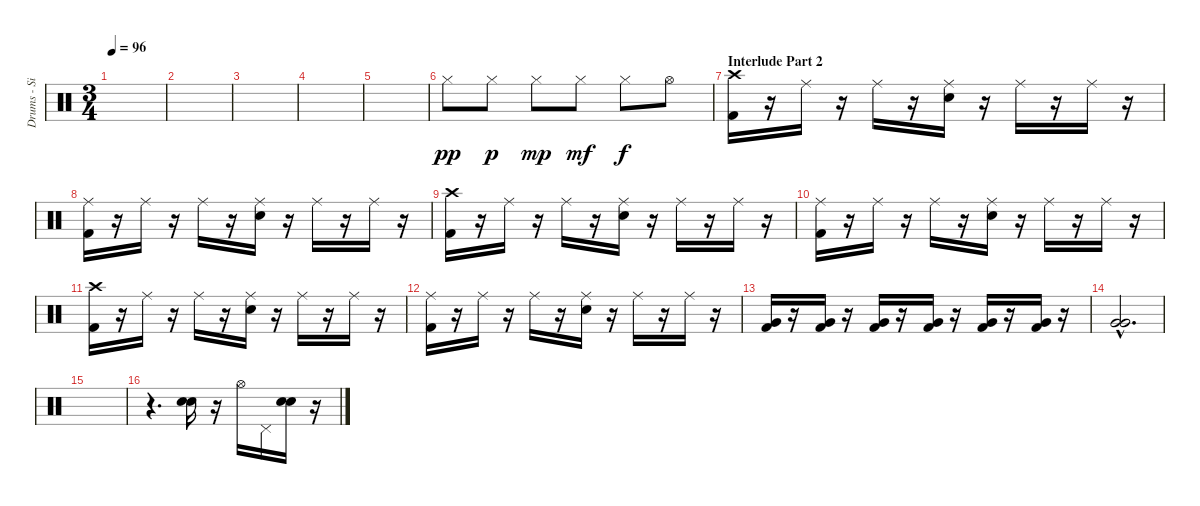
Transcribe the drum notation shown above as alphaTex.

\track ("Drums - Si" "Drums - Si") {instrument percussion}
\staff {score}
\articulation defaults
\ts (3 4)
\tempo 96
\clef neutral
\ks c
|
|
|
|
|
"Hi-Hat (closed)".8{dy pp} "Hi-Hat (closed)".8{dy p} "Hi-Hat (closed)".8{dy mp} "Hi-Hat (closed)".8{dy mf} "Hi-Hat (closed)".8{dy f} "Hi-Hat (open)".8 |
\section ("" "Interlude Part 2")
("Crash high (hit)" "Kick (hit) 2").16 r.16 "Ride (middle)".16 r.16 "Ride (middle)".16 r.16 ("Ride (middle)" "Snare (hit) 2").16 r.16 "Ride (middle)".16 r.16 "Ride (middle)".16 r.16 |
("Ride (middle)" "Kick (hit) 2").16 r.16 "Ride (middle)".16 r.16 "Ride (middle)".16 r.16 ("Ride (middle)" "Snare (hit) 2").16 r.16 "Ride (middle)".16 r.16 "Ride (middle)".16 r.16 |
("Crash high (hit)" "Kick (hit) 2").16 r.16 "Ride (middle)".16 r.16 "Ride (middle)".16 r.16 ("Ride (middle)" "Snare (hit) 2").16 r.16 "Ride (middle)".16 r.16 "Ride (middle)".16 r.16 |
("Ride (middle)" "Kick (hit) 2").16 r.16 "Ride (middle)".16 r.16 "Ride (middle)".16 r.16 ("Ride (middle)" "Snare (hit) 2").16 r.16 "Ride (middle)".16 r.16 "Ride (middle)".16 r.16 |
("Crash high (hit)" "Kick (hit) 2").16 r.16 "Ride (middle)".16 r.16 "Ride (middle)".16 r.16 ("Ride (middle)" "Snare (hit) 2").16 r.16 "Ride (middle)".16 r.16 "Ride (middle)".16 r.16 |
("Ride (middle)" "Kick (hit) 2").16 r.16 "Ride (middle)".16 r.16 "Ride (middle)".16 r.16 ("Ride (middle)" "Snare (hit) 2").16 r.16 "Ride (middle)".16 r.16 "Ride (middle)".16 r.16 |
("Very Low Tom (hit)" "Kick (hit) 2").16 r.16 ("Very Low Tom (hit)" "Kick (hit) 2").16 r.16 ("Very Low Tom (hit)" "Kick (hit) 2").16 r.16 ("Very Low Tom (hit)" "Kick (hit) 2").16 r.16 ("Very Low Tom (hit)" "Kick (hit) 2").16 r.16 ("Very Low Tom (hit)" "Kick (hit) 2").16 r.16 |
("Very Low Tom (hit)"{hac} "Very Low Tom (hit)"{hac}).2{d} |
|
r.4{d} ("Snare (hit) 2" "Snare (hit) 2").16 r.16 "Hi-Hat (open)".16 "Pedal Hi-Hat (hit)".16 ("Snare (hit) 2" "Snare (hit) 2").16 r.16
